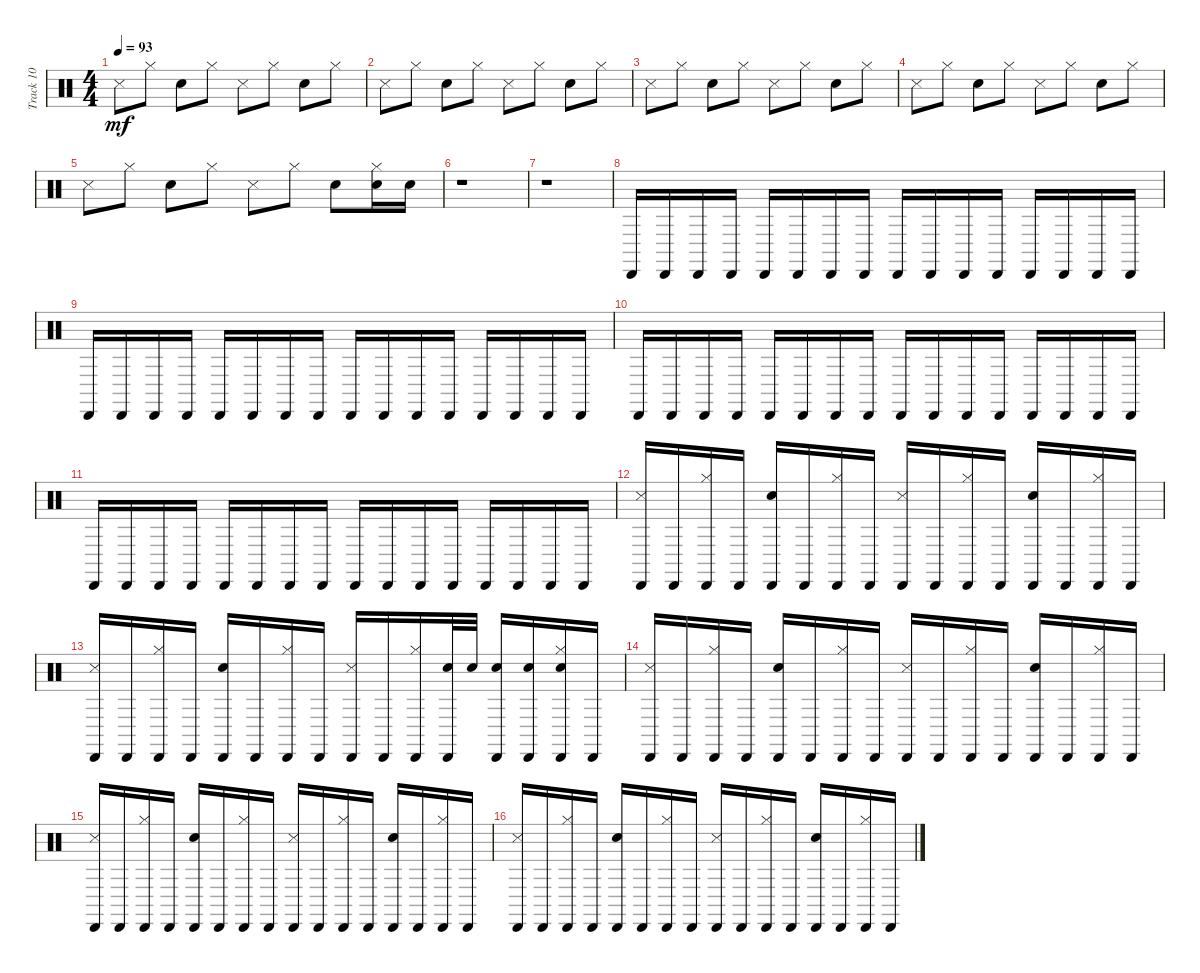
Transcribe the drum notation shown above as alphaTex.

\track ("Track 10" "Track 10") {instrument percussion}
\staff {score}
\articulation defaults
\ts (4 4)
\tempo 93
\clef neutral
\ks c "Metronome (hit)".8{dy mf} "Hi-Hat (closed)".8 "Electric Snare (hit)".8 "Hi-Hat (closed)".8 "Metronome (hit)".8 "Hi-Hat (closed)".8 "Electric Snare (hit)".8 "Hi-Hat (closed)".8
|
"Metronome (hit)".8 "Hi-Hat (closed)".8 "Electric Snare (hit)".8 "Hi-Hat (closed)".8 "Metronome (hit)".8 "Hi-Hat (closed)".8 "Electric Snare (hit)".8 "Hi-Hat (closed)".8 |
"Metronome (hit)".8 "Hi-Hat (closed)".8 "Electric Snare (hit)".8 "Hi-Hat (closed)".8 "Metronome (hit)".8 "Hi-Hat (closed)".8 "Electric Snare (hit)".8 "Hi-Hat (closed)".8 |
"Metronome (hit)".8 "Hi-Hat (closed)".8 "Electric Snare (hit)".8 "Hi-Hat (closed)".8 "Metronome (hit)".8 "Hi-Hat (closed)".8 "Electric Snare (hit)".8 "Hi-Hat (closed)".8 |
"Metronome (hit)".8 "Hi-Hat (closed)".8 "Electric Snare (hit)".8 "Hi-Hat (closed)".8 "Metronome (hit)".8 "Hi-Hat (closed)".8 "Electric Snare (hit)".8 ("Hi-Hat (closed)" "Snare (hit)").16 "Snare (hit)".16 |
r.1 |
r.1 |
"Cabasa (hit)".16 "Cabasa (hit)".16 "Cabasa (hit)".16 "Cabasa (hit)".16 "Cabasa (hit)".16 "Cabasa (hit)".16 "Cabasa (hit)".16 "Cabasa (hit)".16 "Cabasa (hit)".16 "Cabasa (hit)".16 "Cabasa (hit)".16 "Cabasa (hit)".16 "Cabasa (hit)".16 "Cabasa (hit)".16 "Cabasa (hit)".16 "Cabasa (hit)".16 |
"Cabasa (hit)".16 "Cabasa (hit)".16 "Cabasa (hit)".16 "Cabasa (hit)".16 "Cabasa (hit)".16 "Cabasa (hit)".16 "Cabasa (hit)".16 "Cabasa (hit)".16 "Cabasa (hit)".16 "Cabasa (hit)".16 "Cabasa (hit)".16 "Cabasa (hit)".16 "Cabasa (hit)".16 "Cabasa (hit)".16 "Cabasa (hit)".16 "Cabasa (hit)".16 |
"Cabasa (hit)".16 "Cabasa (hit)".16 "Cabasa (hit)".16 "Cabasa (hit)".16 "Cabasa (hit)".16 "Cabasa (hit)".16 "Cabasa (hit)".16 "Cabasa (hit)".16 "Cabasa (hit)".16 "Cabasa (hit)".16 "Cabasa (hit)".16 "Cabasa (hit)".16 "Cabasa (hit)".16 "Cabasa (hit)".16 "Cabasa (hit)".16 "Cabasa (hit)".16 |
"Cabasa (hit)".16 "Cabasa (hit)".16 "Cabasa (hit)".16 "Cabasa (hit)".16 "Cabasa (hit)".16 "Cabasa (hit)".16 "Cabasa (hit)".16 "Cabasa (hit)".16 "Cabasa (hit)".16 "Cabasa (hit)".16 "Cabasa (hit)".16 "Cabasa (hit)".16 "Cabasa (hit)".16 "Cabasa (hit)".16 "Cabasa (hit)".16 "Cabasa (hit)".16 |
("Cabasa (hit)" "Metronome (hit)").16 "Cabasa (hit)".16 ("Cabasa (hit)" "Hi-Hat (closed)").16 "Cabasa (hit)".16 ("Cabasa (hit)" "Electric Snare (hit)").16 "Cabasa (hit)".16 ("Cabasa (hit)" "Hi-Hat (closed)").16 "Cabasa (hit)".16 ("Cabasa (hit)" "Metronome (hit)").16 "Cabasa (hit)".16 ("Cabasa (hit)" "Hi-Hat (closed)").16 "Cabasa (hit)".16 ("Cabasa (hit)" "Electric Snare (hit)").16 "Cabasa (hit)".16 ("Hi-Hat (closed)" "Cabasa (hit)").16 "Cabasa (hit)".16 |
("Cabasa (hit)" "Metronome (hit)").16 "Cabasa (hit)".16 ("Hi-Hat (closed)" "Cabasa (hit)").16 "Cabasa (hit)".16 ("Cabasa (hit)" "Electric Snare (hit)").16 "Cabasa (hit)".16 ("Hi-Hat (closed)" "Cabasa (hit)").16 "Cabasa (hit)".16 ("Cabasa (hit)" "Metronome (hit)").16 "Cabasa (hit)".16 ("Hi-Hat (closed)" "Cabasa (hit)").16 ("Electric Snare (hit)" "Cabasa (hit)").32 "Electric Snare (hit)".32 ("Electric Snare (hit)" "Cabasa (hit)").16 ("Cabasa (hit)" "Electric Snare (hit)").16 ("Electric Snare (hit)" "Cabasa (hit)" "Hi-Hat (closed)").16 "Cabasa (hit)".16 |
("Cabasa (hit)" "Metronome (hit)").16 "Cabasa (hit)".16 ("Hi-Hat (closed)" "Cabasa (hit)").16 "Cabasa (hit)".16 ("Cabasa (hit)" "Electric Snare (hit)").16 "Cabasa (hit)".16 ("Hi-Hat (closed)" "Cabasa (hit)").16 "Cabasa (hit)".16 ("Cabasa (hit)" "Metronome (hit)").16 "Cabasa (hit)".16 ("Hi-Hat (closed)" "Cabasa (hit)").16 "Cabasa (hit)".16 ("Electric Snare (hit)" "Cabasa (hit)").16 "Cabasa (hit)".16 ("Cabasa (hit)" "Hi-Hat (closed)").16 "Cabasa (hit)".16 |
("Cabasa (hit)" "Metronome (hit)").16 "Cabasa (hit)".16 ("Cabasa (hit)" "Hi-Hat (closed)").16 "Cabasa (hit)".16 ("Cabasa (hit)" "Electric Snare (hit)").16 "Cabasa (hit)".16 ("Cabasa (hit)" "Hi-Hat (closed)").16 "Cabasa (hit)".16 ("Metronome (hit)" "Cabasa (hit)").16 "Cabasa (hit)".16 ("Cabasa (hit)" "Hi-Hat (closed)").16 "Cabasa (hit)".16 ("Cabasa (hit)" "Electric Snare (hit)").16 "Cabasa (hit)".16 ("Cabasa (hit)" "Hi-Hat (closed)").16 "Cabasa (hit)".16 |
("Cabasa (hit)" "Metronome (hit)").16 "Cabasa (hit)".16 ("Hi-Hat (closed)" "Cabasa (hit)").16 "Cabasa (hit)".16 ("Electric Snare (hit)" "Cabasa (hit)").16 "Cabasa (hit)".16 ("Cabasa (hit)" "Hi-Hat (closed)").16 "Cabasa (hit)".16 ("Metronome (hit)" "Cabasa (hit)").16 "Cabasa (hit)".16 ("Hi-Hat (closed)" "Cabasa (hit)").16 "Cabasa (hit)".16 ("Electric Snare (hit)" "Cabasa (hit)").16 "Cabasa (hit)".16 ("Cabasa (hit)" "Hi-Hat (closed)").16 "Cabasa (hit)".16
